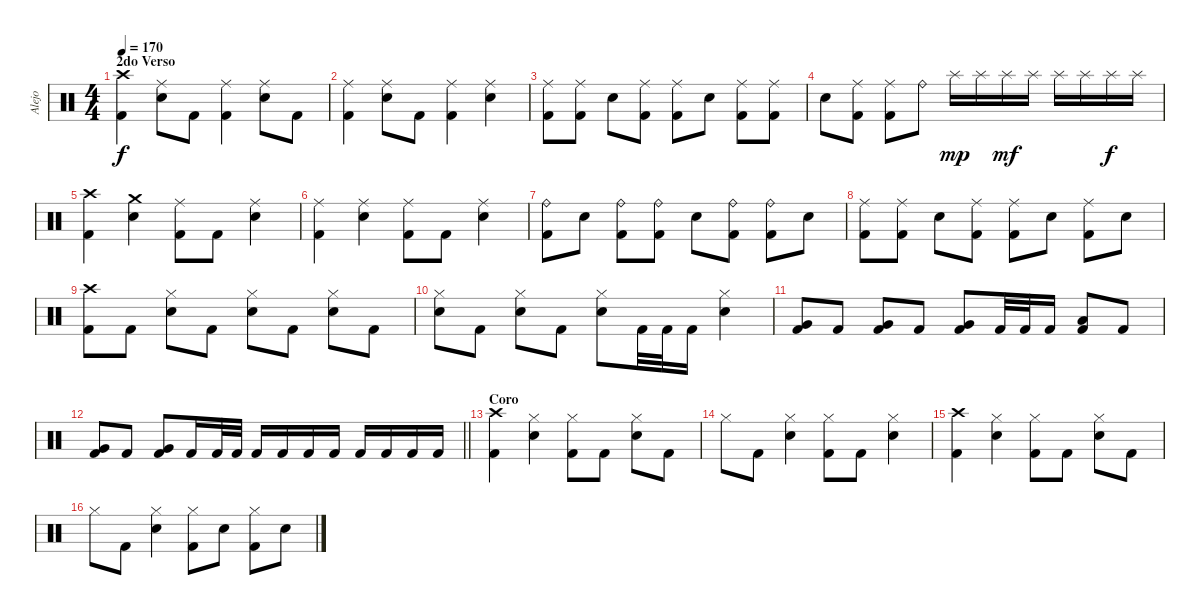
\track ("Alejo" "Alejo") {instrument percussion}
\staff {score}
\articulation defaults
\ts (4 4)
\section ("" "2do Verso")
\tempo 170
\clef neutral
\ks c
("Crash high (hit)" "Kick (hit) 2").4{dy f} ("Snare (hit) 2" "Ride (middle)").8 "Kick (hit) 2".8 ("Kick (hit) 2" "Ride (middle)").4 ("Snare (hit) 2" "Ride (middle)").8 "Kick (hit) 2".8 |
("Kick (hit) 2" "Ride (middle)").4 ("Ride (middle)" "Snare (hit) 2").8 "Kick (hit) 2".8 ("Kick (hit) 2" "Ride (middle)").4 ("Snare (hit) 2" "Ride (middle)").4 |
("Ride (middle)" "Kick (hit) 2").8 ("Kick (hit) 2" "Ride (middle)").8 "Snare (hit) 2".8 ("Ride (middle)" "Kick (hit) 2").8 ("Kick (hit) 2" "Ride (middle)").8 "Snare (hit) 2".8 ("Ride (middle)" "Kick (hit) 2").8 ("Kick (hit) 2" "Ride (middle)").8 |
"Snare (hit) 2".8 ("Ride (middle)" "Kick (hit) 2").8 ("Kick (hit) 2" "Ride (middle)").8 "Ride (bell)".8 "Splash (hit)".16{dy mp} "Splash (hit)".16 "Splash (hit)".16{dy mf} "Splash (hit)".16 "Splash (hit)".16 "Splash (hit)".16 "Splash (hit)".16{dy f} "Splash (hit)".16 |
("Crash high (hit)" "Kick (hit) 2").4 ("Snare (hit) 2" "Crash medium (hit)").4 ("Kick (hit) 2" "Ride (middle)").8 "Kick (hit) 2".8 ("Ride (middle)" "Snare (hit) 2").4 |
("Kick (hit) 2" "Ride (middle)").4 ("Ride (middle)" "Snare (hit) 2").4 ("Kick (hit) 2" "Ride (middle)").8 "Kick (hit) 2".8 ("Ride (middle)" "Snare (hit) 2").4 |
("Ride (bell)" "Kick (hit) 2").8 "Snare (hit) 2".8 ("Ride (bell)" "Kick (hit) 2").8 ("Ride (bell)" "Kick (hit) 2").8 "Snare (hit) 2".8 ("Ride (bell)" "Kick (hit) 2").8 ("Ride (bell)" "Kick (hit) 2").8 "Snare (hit) 2".8 |
("Ride (middle)" "Kick (hit) 2").8 ("Ride (middle)" "Kick (hit) 2").8 "Snare (hit) 2".8 ("Ride (middle)" "Kick (hit) 2").8 ("Ride (middle)" "Kick (hit) 2").8 "Snare (hit) 2".8 ("Ride (middle)" "Kick (hit) 2").8 "Snare (hit) 2".8 |
("Crash high (hit)" "Kick (hit) 2").8 "Kick (hit) 2".8 ("Snare (hit) 2" "Hi-Hat (closed)").8 "Kick (hit) 2".8 ("Snare (hit) 2" "Hi-Hat (closed)").8 "Kick (hit) 2".8 ("Snare (hit) 2" "Hi-Hat (closed)").8 "Kick (hit) 2".8 |
("Snare (hit) 2" "Hi-Hat (closed)").8 "Kick (hit) 2".8 ("Snare (hit) 2" "Hi-Hat (closed)").8 "Kick (hit) 2".8 ("Snare (hit) 2" "Hi-Hat (closed)").8 "Kick (hit) 2".32 "Kick (hit) 2".32 "Kick (hit) 2".16 ("Snare (hit) 2" "Hi-Hat (closed)").4 |
("Very Low Tom (hit)" "Kick (hit) 2").8 "Kick (hit) 2".8 ("Kick (hit) 2" "Very Low Tom (hit)").8 "Kick (hit) 2".8 ("Kick (hit) 2" "Very Low Tom (hit)").8 "Kick (hit) 2".32 "Kick (hit) 2".32 "Kick (hit) 2".16 ("Kick (hit) 2" "Low Floor Tom (hit)").8 "Kick (hit) 2".8 |
\barLineRight lightlight
("Very Low Tom (hit)" "Kick (hit) 2").8 "Kick (hit) 2".8 ("Kick (hit) 2" "Very Low Tom (hit)").8 "Kick (hit) 2".16 "Kick (hit) 2".32 "Kick (hit) 2".32 "Kick (hit) 2".16 "Kick (hit) 2".16 "Kick (hit) 2".16 "Kick (hit) 2".16 "Kick (hit) 2".16 "Kick (hit) 2".16 "Kick (hit) 2".16 "Kick (hit) 2".16 |
\section ("" "Coro")
("Crash high (hit)" "Kick (hit) 2").4 ("Snare (hit) 2" "Hi-Hat (closed)").4 ("Kick (hit) 2" "Hi-Hat (closed)").8 "Kick (hit) 2".8 ("Snare (hit) 2" "Hi-Hat (closed)").8 "Kick (hit) 2".8 |
"Hi-Hat (closed)".8 "Kick (hit) 2".8 ("Snare (hit) 2" "Hi-Hat (closed)").4 ("Kick (hit) 2" "Hi-Hat (closed)").8 "Kick (hit) 2".8 ("Snare (hit) 2" "Hi-Hat (closed)").4 |
("Crash high (hit)" "Kick (hit) 2").4 ("Snare (hit) 2" "Hi-Hat (closed)").4 ("Kick (hit) 2" "Hi-Hat (closed)").8 "Kick (hit) 2".8 ("Snare (hit) 2" "Hi-Hat (closed)").8 "Kick (hit) 2".8 |
"Hi-Hat (closed)".8 "Kick (hit) 2".8 ("Snare (hit) 2" "Hi-Hat (closed)").4 ("Kick (hit) 2" "Hi-Hat (closed)").8 "Snare (hit) 2".8 ("Kick (hit) 2" "Hi-Hat (closed)").8 "Snare (hit) 2".8
